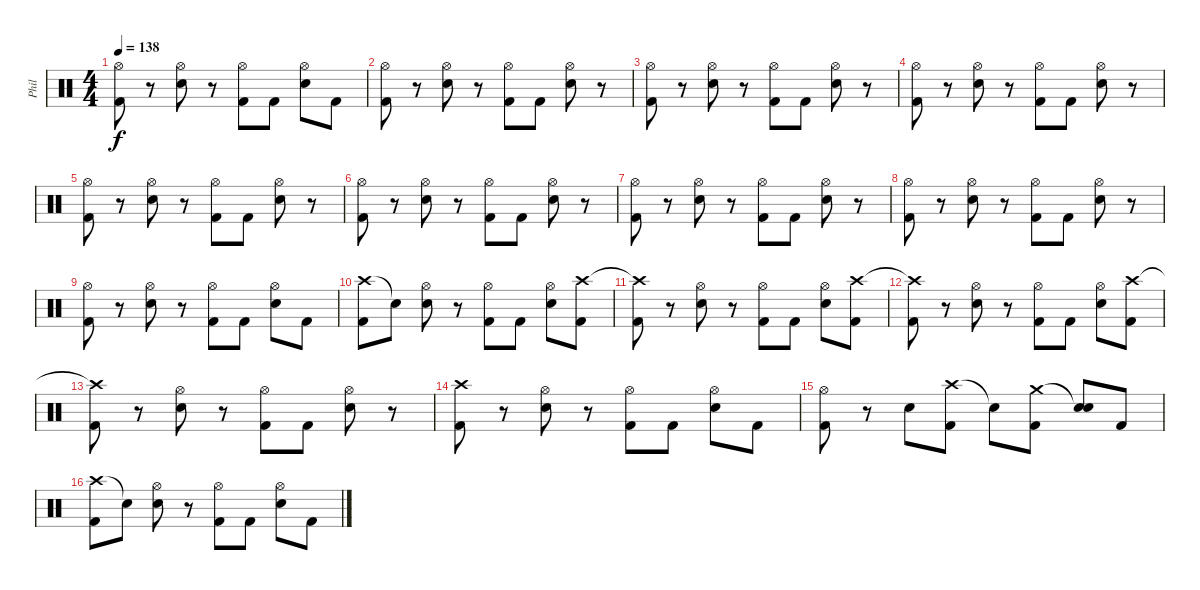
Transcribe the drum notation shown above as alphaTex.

\track ("Phil" "Phil") {instrument percussion}
\staff {score}
\articulation defaults
\ts (4 4)
\tempo 138
\clef neutral
\ks c
("Hi-Hat (open)" "Kick (hit) 2").8{dy f} r.8 ("Hi-Hat (open)" "Snare (hit) 2").8 r.8 ("Hi-Hat (open)" "Kick (hit) 2").8 "Kick (hit) 2".8 ("Hi-Hat (open)" "Snare (hit) 2").8 "Kick (hit) 2".8 |
("Hi-Hat (open)" "Kick (hit) 2").8 r.8 ("Hi-Hat (open)" "Snare (hit) 2").8 r.8 ("Hi-Hat (open)" "Kick (hit) 2").8 "Kick (hit) 2".8 ("Hi-Hat (open)" "Snare (hit) 2").8 r.8 |
("Hi-Hat (open)" "Kick (hit) 2").8 r.8 ("Hi-Hat (open)" "Snare (hit) 2").8 r.8 ("Hi-Hat (open)" "Kick (hit) 2").8 "Kick (hit) 2".8 ("Hi-Hat (open)" "Snare (hit) 2").8 r.8 |
("Hi-Hat (open)" "Kick (hit) 2").8 r.8 ("Hi-Hat (open)" "Snare (hit) 2").8 r.8 ("Hi-Hat (open)" "Kick (hit) 2").8 "Kick (hit) 2".8 ("Hi-Hat (open)" "Snare (hit) 2").8 r.8 |
("Hi-Hat (open)" "Kick (hit) 2").8 r.8 ("Hi-Hat (open)" "Snare (hit) 2").8 r.8 ("Hi-Hat (open)" "Kick (hit) 2").8 "Kick (hit) 2".8 ("Hi-Hat (open)" "Snare (hit) 2").8 r.8 |
("Hi-Hat (open)" "Kick (hit) 2").8 r.8 ("Hi-Hat (open)" "Snare (hit) 2").8 r.8 ("Hi-Hat (open)" "Kick (hit) 2").8 "Kick (hit) 2".8 ("Hi-Hat (open)" "Snare (hit) 2").8 r.8 |
("Hi-Hat (open)" "Kick (hit) 2").8 r.8 ("Hi-Hat (open)" "Snare (hit) 2").8 r.8 ("Hi-Hat (open)" "Kick (hit) 2").8 "Kick (hit) 2".8 ("Hi-Hat (open)" "Snare (hit) 2").8 r.8 |
("Hi-Hat (open)" "Kick (hit) 2").8 r.8 ("Hi-Hat (open)" "Snare (hit) 2").8 r.8 ("Hi-Hat (open)" "Kick (hit) 2").8 "Kick (hit) 2".8 ("Hi-Hat (open)" "Snare (hit) 2").8 r.8 |
("Hi-Hat (open)" "Kick (hit) 2").8 r.8 ("Hi-Hat (open)" "Snare (hit) 2").8 r.8 ("Hi-Hat (open)" "Kick (hit) 2").8 "Kick (hit) 2".8 ("Hi-Hat (open)" "Snare (hit) 2").8 "Kick (hit) 2".8 |
("Crash high (hit)" "Kick (hit) 2").8 "Snare (hit)"{t}.8 ("Hi-Hat (open)" "Snare (hit) 2").8 r.8 ("Hi-Hat (open)" "Kick (hit) 2").8 "Kick (hit) 2".8 ("Hi-Hat (open)" "Snare (hit) 2").8 ("Crash high (hit)" "Kick (hit) 2").8 |
("Crash high (hit)"{t} "Kick (hit) 2").8 r.8 ("Hi-Hat (open)" "Snare (hit) 2").8 r.8 ("Hi-Hat (open)" "Kick (hit) 2").8 "Kick (hit) 2".8 ("Hi-Hat (open)" "Snare (hit) 2").8 ("Crash high (hit)" "Kick (hit) 2").8 |
("Crash high (hit)"{t} "Kick (hit) 2").8 r.8 ("Hi-Hat (open)" "Snare (hit) 2").8 r.8 ("Hi-Hat (open)" "Kick (hit) 2").8 "Kick (hit) 2".8 ("Hi-Hat (open)" "Snare (hit) 2").8 ("Crash high (hit)" "Kick (hit) 2").8 |
("Crash high (hit)"{t} "Kick (hit) 2").8 r.8 ("Hi-Hat (open)" "Snare (hit) 2").8 r.8 ("Hi-Hat (open)" "Kick (hit) 2").8 "Kick (hit) 2".8 ("Hi-Hat (open)" "Snare (hit) 2").8 r.8 |
("Crash high (hit)" "Kick (hit) 2").8 r.8 ("Hi-Hat (open)" "Snare (hit) 2").8 r.8 ("Hi-Hat (open)" "Kick (hit) 2").8 "Kick (hit) 2".8 ("Hi-Hat (open)" "Snare (hit) 2").8 "Kick (hit) 2".8 |
("Hi-Hat (open)" "Kick (hit) 2").8 r.8 "Snare (hit) 2".8 ("Crash high (hit)" "Kick (hit) 2").8 "Snare (hit)"{t}.8 ("Crash medium (hit)" "Kick (hit) 2").8 ("Snare (hit)"{t} "Snare (hit) 2").8 "Kick (hit) 2".8 |
("Crash high (hit)" "Kick (hit) 2").8 "Snare (hit)"{t}.8 ("Hi-Hat (open)" "Snare (hit) 2").8 r.8 ("Hi-Hat (open)" "Kick (hit) 2").8 "Kick (hit) 2".8 ("Hi-Hat (open)" "Snare (hit) 2").8 "Kick (hit) 2".8
